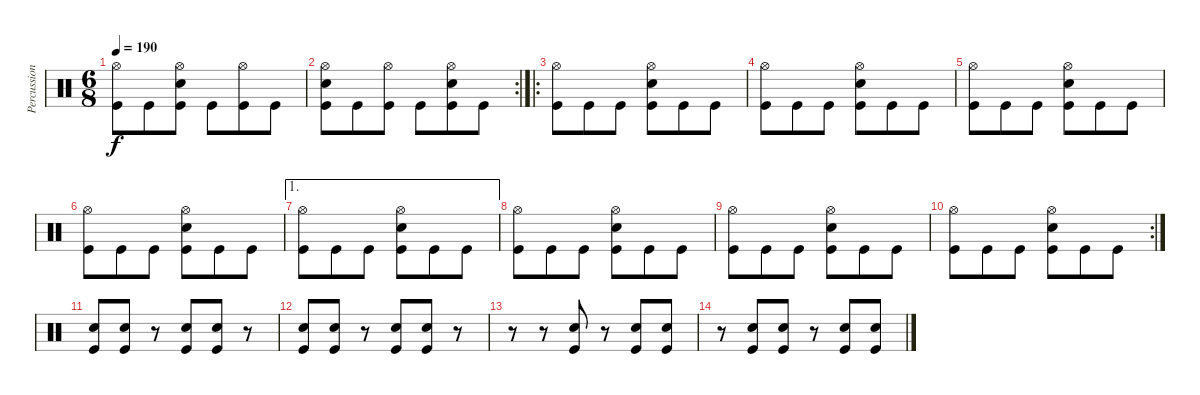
\track ("Percussion" "Percussion") {instrument percussion}
\staff {score}
\articulation defaults
\ts (6 8)
\tempo 190
\clef neutral
\ks c
("Hi-Hat (open)" "Kick (hit)").8{dy f} "Kick (hit)".8 ("Hi-Hat (open)" "Snare (hit) 2" "Kick (hit)").8 "Kick (hit)".8 ("Hi-Hat (open)" "Kick (hit)").8 "Kick (hit)".8 |
\rc 2
("Hi-Hat (open)" "Snare (hit) 2" "Kick (hit)").8 "Kick (hit)".8 ("Hi-Hat (open)" "Kick (hit)").8 "Kick (hit)".8 ("Hi-Hat (open)" "Snare (hit) 2" "Kick (hit)").8 "Kick (hit)".8 |
\ro
("Hi-Hat (open)" "Kick (hit)").8 "Kick (hit)".8 "Kick (hit)".8 ("Hi-Hat (open)" "Snare (hit) 2" "Kick (hit)").8 "Kick (hit)".8 "Kick (hit)".8 |
("Hi-Hat (open)" "Kick (hit)").8 "Kick (hit)".8 "Kick (hit)".8 ("Hi-Hat (open)" "Snare (hit) 2" "Kick (hit)").8 "Kick (hit)".8 "Kick (hit)".8 |
("Hi-Hat (open)" "Kick (hit)").8 "Kick (hit)".8 "Kick (hit)".8 ("Hi-Hat (open)" "Snare (hit) 2" "Kick (hit)").8 "Kick (hit)".8 "Kick (hit)".8 |
("Hi-Hat (open)" "Kick (hit)").8 "Kick (hit)".8 "Kick (hit)".8 ("Hi-Hat (open)" "Snare (hit) 2" "Kick (hit)").8 "Kick (hit)".8 "Kick (hit)".8 |
\ae 1
("Hi-Hat (open)" "Kick (hit)").8 "Kick (hit)".8 "Kick (hit)".8 ("Hi-Hat (open)" "Snare (hit) 2" "Kick (hit)").8 "Kick (hit)".8 "Kick (hit)".8 |
("Hi-Hat (open)" "Kick (hit)").8 "Kick (hit)".8 "Kick (hit)".8 ("Hi-Hat (open)" "Snare (hit) 2" "Kick (hit)").8 "Kick (hit)".8 "Kick (hit)".8 |
("Hi-Hat (open)" "Kick (hit)").8 "Kick (hit)".8 "Kick (hit)".8 ("Hi-Hat (open)" "Snare (hit) 2" "Kick (hit)").8 "Kick (hit)".8 "Kick (hit)".8 |
\rc 2
("Hi-Hat (open)" "Kick (hit)").8 "Kick (hit)".8 "Kick (hit)".8 ("Hi-Hat (open)" "Snare (hit) 2" "Kick (hit)").8 "Kick (hit)".8 "Kick (hit)".8 |
("Snare (hit) 2" "Kick (hit)").8 ("Snare (hit) 2" "Kick (hit)").8 r.8 ("Snare (hit) 2" "Kick (hit)").8 ("Snare (hit) 2" "Kick (hit)").8 r.8 |
("Snare (hit) 2" "Kick (hit)").8 ("Snare (hit) 2" "Kick (hit)").8 r.8 ("Snare (hit) 2" "Kick (hit)").8 ("Snare (hit) 2" "Kick (hit)").8 r.8 |
r.8 r.8 ("Snare (hit) 2" "Kick (hit)").8 r.8 ("Snare (hit) 2" "Kick (hit)").8 ("Snare (hit) 2" "Kick (hit)").8 |
r.8 ("Snare (hit) 2" "Kick (hit)").8 ("Snare (hit) 2" "Kick (hit)").8 r.8 ("Snare (hit) 2" "Kick (hit)").8 ("Snare (hit) 2" "Kick (hit)").8
